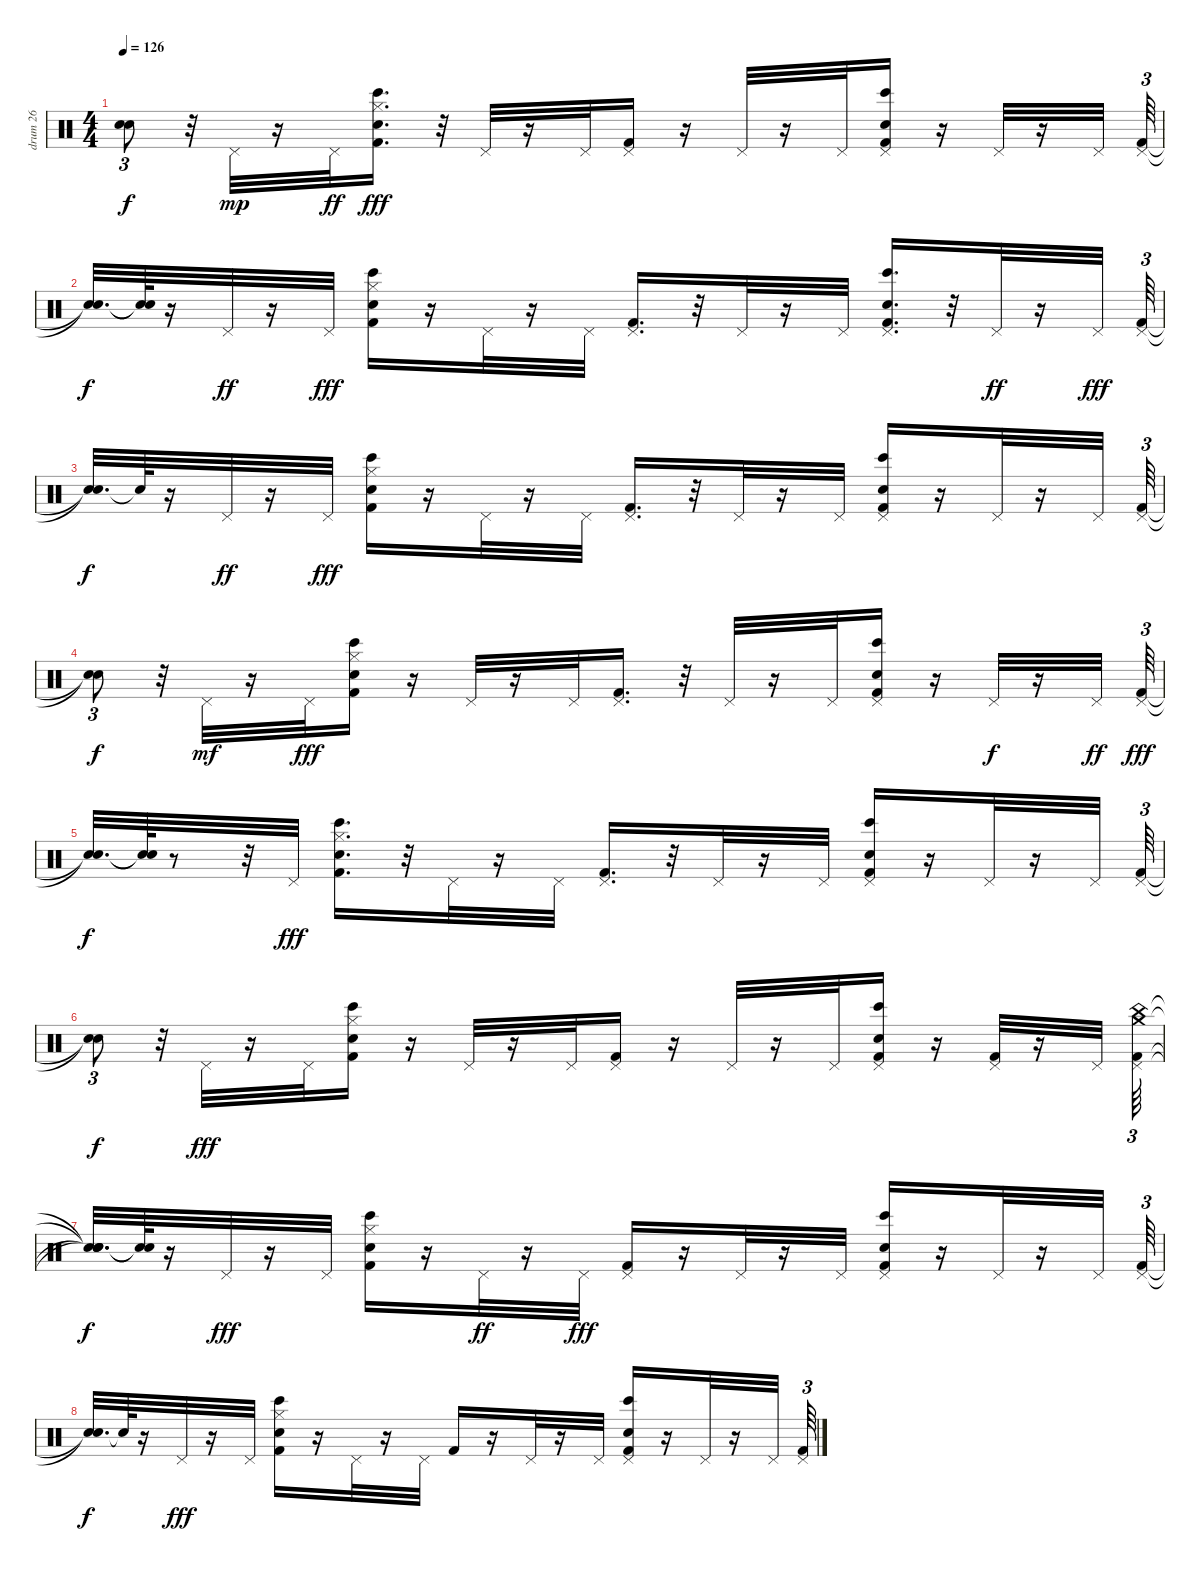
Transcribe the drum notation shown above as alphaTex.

\track ("drum 26" "drum 26") {instrument percussion}
\staff {score}
\articulation defaults
\ts (4 4)
\tempo 126
\clef neutral
\ks c
("Snare (hit)"{t} "Snare (hit)"{t}).8{tu (3 2) dy f} r.32 "Pedal Hi-Hat (hit)".32{dy mp} r.16 "Pedal Hi-Hat (hit)".32{dy ff} ("Bongo High (hit)" "Kick (hit) 2" "Hand Clap (hit)" "Hi-Hat (closed)").16{d dy fff} r.32 "Pedal Hi-Hat (hit)".32 r.16 "Pedal Hi-Hat (hit)".32 ("Kick (hit) 2" "Pedal Hi-Hat (hit)").16 r.16 "Pedal Hi-Hat (hit)".32 r.16 "Pedal Hi-Hat (hit)".32 ("Bongo High (hit)" "Kick (hit) 2" "Hand Clap (hit)" "Pedal Hi-Hat (hit)").16 r.16 "Pedal Hi-Hat (hit)".32 r.16 "Pedal Hi-Hat (hit)".32 ("Kick (hit) 2" "Pedal Hi-Hat (hit)").64{tu (3 2)} |
("Snare (hit)"{t} "Snare (hit)"{t}).32{d dy f} ("Snare (hit)"{t} "Snare (hit)"{t}).64 r.16 "Pedal Hi-Hat (hit)".32{dy ff} r.16 "Pedal Hi-Hat (hit)".32{dy fff} ("Bongo High (hit)" "Kick (hit) 2" "Hand Clap (hit)" "Hi-Hat (closed)").16 r.16 "Pedal Hi-Hat (hit)".32 r.16 "Pedal Hi-Hat (hit)".32 ("Kick (hit) 2" "Pedal Hi-Hat (hit)").16{d} r.32 "Pedal Hi-Hat (hit)".32 r.16 "Pedal Hi-Hat (hit)".32 ("Bongo High (hit)" "Kick (hit) 2" "Hand Clap (hit)" "Pedal Hi-Hat (hit)").16{d} r.32 "Pedal Hi-Hat (hit)".32{dy ff} r.16 "Pedal Hi-Hat (hit)".32{dy fff} ("Kick (hit) 2" "Pedal Hi-Hat (hit)").64{tu (3 2)} |
("Snare (hit)"{t} "Snare (hit)"{t}).32{d dy f} "Snare (hit)"{t}.64 r.16 "Pedal Hi-Hat (hit)".32{dy ff} r.16 "Pedal Hi-Hat (hit)".32{dy fff} ("Bongo High (hit)" "Kick (hit) 2" "Hand Clap (hit)" "Hi-Hat (closed)").16 r.16 "Pedal Hi-Hat (hit)".32 r.16 "Pedal Hi-Hat (hit)".32 ("Kick (hit) 2" "Pedal Hi-Hat (hit)").16{d} r.32 "Pedal Hi-Hat (hit)".32 r.16 "Pedal Hi-Hat (hit)".32 ("Bongo High (hit)" "Kick (hit) 2" "Hand Clap (hit)" "Pedal Hi-Hat (hit)").16 r.16 "Pedal Hi-Hat (hit)".32 r.16 "Pedal Hi-Hat (hit)".32 ("Kick (hit) 2" "Pedal Hi-Hat (hit)").64{tu (3 2)} |
("Snare (hit)"{t} "Snare (hit)"{t}).8{tu (3 2) dy f} r.32 "Pedal Hi-Hat (hit)".32{dy mf} r.16 "Pedal Hi-Hat (hit)".32{dy fff} ("Bongo High (hit)" "Kick (hit) 2" "Hand Clap (hit)" "Hi-Hat (closed)").16 r.16 "Pedal Hi-Hat (hit)".32 r.16 "Pedal Hi-Hat (hit)".32 ("Kick (hit) 2" "Pedal Hi-Hat (hit)").16{d} r.32 "Pedal Hi-Hat (hit)".32 r.16 "Pedal Hi-Hat (hit)".32 ("Bongo High (hit)" "Kick (hit) 2" "Hand Clap (hit)" "Pedal Hi-Hat (hit)").16 r.16 "Pedal Hi-Hat (hit)".32{dy f} r.16 "Pedal Hi-Hat (hit)".32{dy ff} ("Kick (hit) 2" "Pedal Hi-Hat (hit)").64{tu (3 2) dy fff} |
("Snare (hit)"{t} "Snare (hit)"{t}).32{d dy f} ("Snare (hit)"{t} "Snare (hit)"{t}).64 r.8 r.32 "Pedal Hi-Hat (hit)".32{dy fff} ("Bongo High (hit)" "Kick (hit) 2" "Hand Clap (hit)" "Hi-Hat (closed)").16{d} r.32 "Pedal Hi-Hat (hit)".32 r.16 "Pedal Hi-Hat (hit)".32 ("Kick (hit) 2" "Pedal Hi-Hat (hit)").16{d} r.32 "Pedal Hi-Hat (hit)".32 r.16 "Pedal Hi-Hat (hit)".32 ("Bongo High (hit)" "Kick (hit) 2" "Hand Clap (hit)" "Pedal Hi-Hat (hit)").16 r.16 "Pedal Hi-Hat (hit)".32 r.16 "Pedal Hi-Hat (hit)".32 ("Kick (hit) 2" "Pedal Hi-Hat (hit)").64{tu (3 2)} |
("Snare (hit)"{t} "Snare (hit)"{t}).8{tu (3 2) dy f} r.32 "Pedal Hi-Hat (hit)".32{dy fff} r.16 "Pedal Hi-Hat (hit)".32 ("Bongo High (hit)" "Kick (hit) 2" "Hand Clap (hit)" "Hi-Hat (closed)").16 r.16 "Pedal Hi-Hat (hit)".32 r.16 "Pedal Hi-Hat (hit)".32 ("Kick (hit) 2" "Pedal Hi-Hat (hit)").16 r.16 "Pedal Hi-Hat (hit)".32 r.16 "Pedal Hi-Hat (hit)".32 ("Bongo High (hit)" "Kick (hit) 2" "Hand Clap (hit)" "Pedal Hi-Hat (hit)").16 r.16 ("Kick (hit) 2" "Pedal Hi-Hat (hit)").32 r.16 "Pedal Hi-Hat (hit)".32 ("Kick (hit) 2" "Pedal Hi-Hat (hit)" "China (hit)" "Crash medium (hit)").64{tu (3 2)} |
("Snare (hit)"{t} "Snare (hit)"{t} "Snare (hit)"{t} "Snare (hit)"{t}).32{d dy f} ("Snare (hit)"{t} "Snare (hit)"{t}).64 r.16 "Pedal Hi-Hat (hit)".32{dy fff} r.16 "Pedal Hi-Hat (hit)".32 ("Bongo High (hit)" "Kick (hit) 2" "Hand Clap (hit)" "Hi-Hat (closed)").16 r.16 "Pedal Hi-Hat (hit)".32{dy ff} r.16 "Pedal Hi-Hat (hit)".32{dy fff} ("Kick (hit) 2" "Pedal Hi-Hat (hit)").16 r.16 "Pedal Hi-Hat (hit)".32 r.16 "Pedal Hi-Hat (hit)".32 ("Bongo High (hit)" "Kick (hit) 2" "Hand Clap (hit)" "Pedal Hi-Hat (hit)").16 r.16 "Pedal Hi-Hat (hit)".32 r.16 "Pedal Hi-Hat (hit)".32 ("Kick (hit) 2" "Pedal Hi-Hat (hit)").64{tu (3 2)} |
("Snare (hit)"{t} "Snare (hit)"{t}).32{d dy f} "Snare (hit)"{t}.64 r.16 "Pedal Hi-Hat (hit)".32{dy fff} r.16 "Pedal Hi-Hat (hit)".32 ("Bongo High (hit)" "Kick (hit) 2" "Hand Clap (hit)" "Hi-Hat (closed)").16 r.16 "Pedal Hi-Hat (hit)".32 r.16 "Pedal Hi-Hat (hit)".32 "Kick (hit) 2".16 r.16 "Pedal Hi-Hat (hit)".32 r.16 "Pedal Hi-Hat (hit)".32 ("Bongo High (hit)" "Kick (hit) 2" "Hand Clap (hit)" "Pedal Hi-Hat (hit)").16 r.16 "Pedal Hi-Hat (hit)".32 r.16 "Pedal Hi-Hat (hit)".32 ("Kick (hit) 2" "Pedal Hi-Hat (hit)").64{tu (3 2)}
